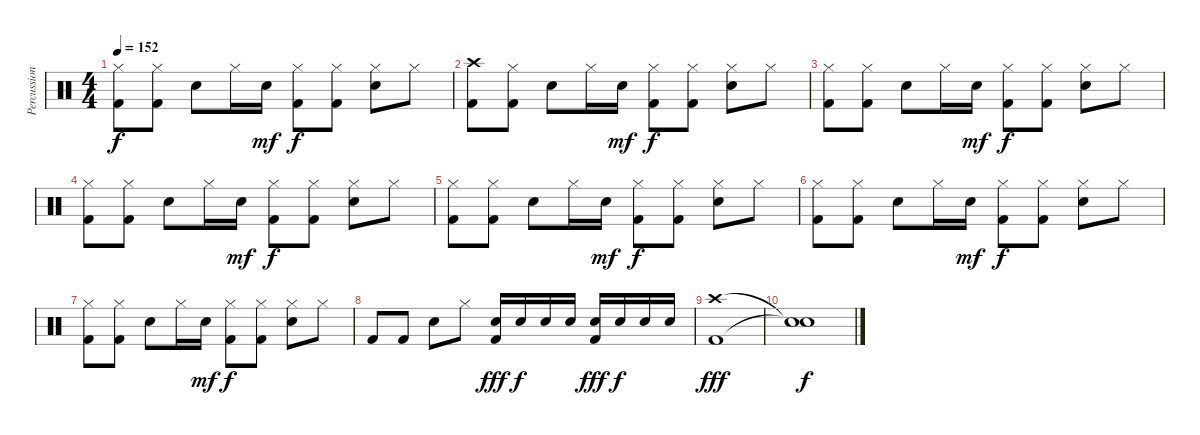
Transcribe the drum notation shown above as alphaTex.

\track ("Percussion" "Percussion") {instrument percussion}
\staff {score}
\articulation defaults
\ts (4 4)
\tempo 152
\clef neutral
\ks c
("Kick (hit) 2" "Hi-Hat (closed)").8{dy f} ("Kick (hit) 2" "Hi-Hat (closed)").8 "Electric Snare (hit)".8 "Hi-Hat (closed)".16 "Electric Snare (hit)".16{dy mf} ("Kick (hit) 2" "Hi-Hat (closed)").8{dy f} ("Kick (hit) 2" "Hi-Hat (closed)").8 ("Electric Snare (hit)" "Hi-Hat (closed)").8 "Hi-Hat (closed)".8 |
("Kick (hit) 2" "Crash high (hit)").8 ("Kick (hit) 2" "Hi-Hat (closed)").8 "Electric Snare (hit)".8 "Hi-Hat (closed)".16 "Electric Snare (hit)".16{dy mf} ("Kick (hit) 2" "Hi-Hat (closed)").8{dy f} ("Kick (hit) 2" "Hi-Hat (closed)").8 ("Electric Snare (hit)" "Hi-Hat (closed)").8 "Hi-Hat (closed)".8 |
("Kick (hit) 2" "Hi-Hat (closed)").8 ("Kick (hit) 2" "Hi-Hat (closed)").8 "Electric Snare (hit)".8 "Hi-Hat (closed)".16 "Electric Snare (hit)".16{dy mf} ("Kick (hit) 2" "Hi-Hat (closed)").8{dy f} ("Kick (hit) 2" "Hi-Hat (closed)").8 ("Electric Snare (hit)" "Hi-Hat (closed)").8 "Hi-Hat (closed)".8 |
("Kick (hit) 2" "Hi-Hat (closed)").8 ("Kick (hit) 2" "Hi-Hat (closed)").8 "Electric Snare (hit)".8 "Hi-Hat (closed)".16 "Electric Snare (hit)".16{dy mf} ("Kick (hit) 2" "Hi-Hat (closed)").8{dy f} ("Kick (hit) 2" "Hi-Hat (closed)").8 ("Electric Snare (hit)" "Hi-Hat (closed)").8 "Hi-Hat (closed)".8 |
("Kick (hit) 2" "Hi-Hat (closed)").8 ("Kick (hit) 2" "Hi-Hat (closed)").8 "Electric Snare (hit)".8 "Hi-Hat (closed)".16 "Electric Snare (hit)".16{dy mf} ("Kick (hit) 2" "Hi-Hat (closed)").8{dy f} ("Kick (hit) 2" "Hi-Hat (closed)").8 ("Electric Snare (hit)" "Hi-Hat (closed)").8 "Hi-Hat (closed)".8 |
("Kick (hit) 2" "Hi-Hat (closed)").8 ("Kick (hit) 2" "Hi-Hat (closed)").8 "Electric Snare (hit)".8 "Hi-Hat (closed)".16 "Electric Snare (hit)".16{dy mf} ("Kick (hit) 2" "Hi-Hat (closed)").8{dy f} ("Kick (hit) 2" "Hi-Hat (closed)").8 ("Electric Snare (hit)" "Hi-Hat (closed)").8 "Hi-Hat (closed)".8 |
("Kick (hit) 2" "Hi-Hat (closed)").8 ("Kick (hit) 2" "Hi-Hat (closed)").8 "Electric Snare (hit)".8 "Hi-Hat (closed)".16 "Electric Snare (hit)".16{dy mf} ("Kick (hit) 2" "Hi-Hat (closed)").8{dy f} ("Kick (hit) 2" "Hi-Hat (closed)").8 ("Electric Snare (hit)" "Hi-Hat (closed)").8 "Hi-Hat (closed)".8 |
"Kick (hit) 2".8 "Kick (hit) 2".8 "Electric Snare (hit)".8 "Hi-Hat (closed)".8 ("Snare (hit) 2" "Kick (hit) 2").16{dy fff} "Electric Snare (hit)".16{dy f} "Electric Snare (hit)".16 "Electric Snare (hit)".16 ("Snare (hit) 2" "Kick (hit) 2").16{dy fff} "Electric Snare (hit)".16{dy f} "Electric Snare (hit)".16 "Electric Snare (hit)".16 |
("Kick (hit) 2" "Crash high (hit)").1{dy fff} |
("Snare (hit)"{t} "Snare (hit)"{t}).1{dy f}
